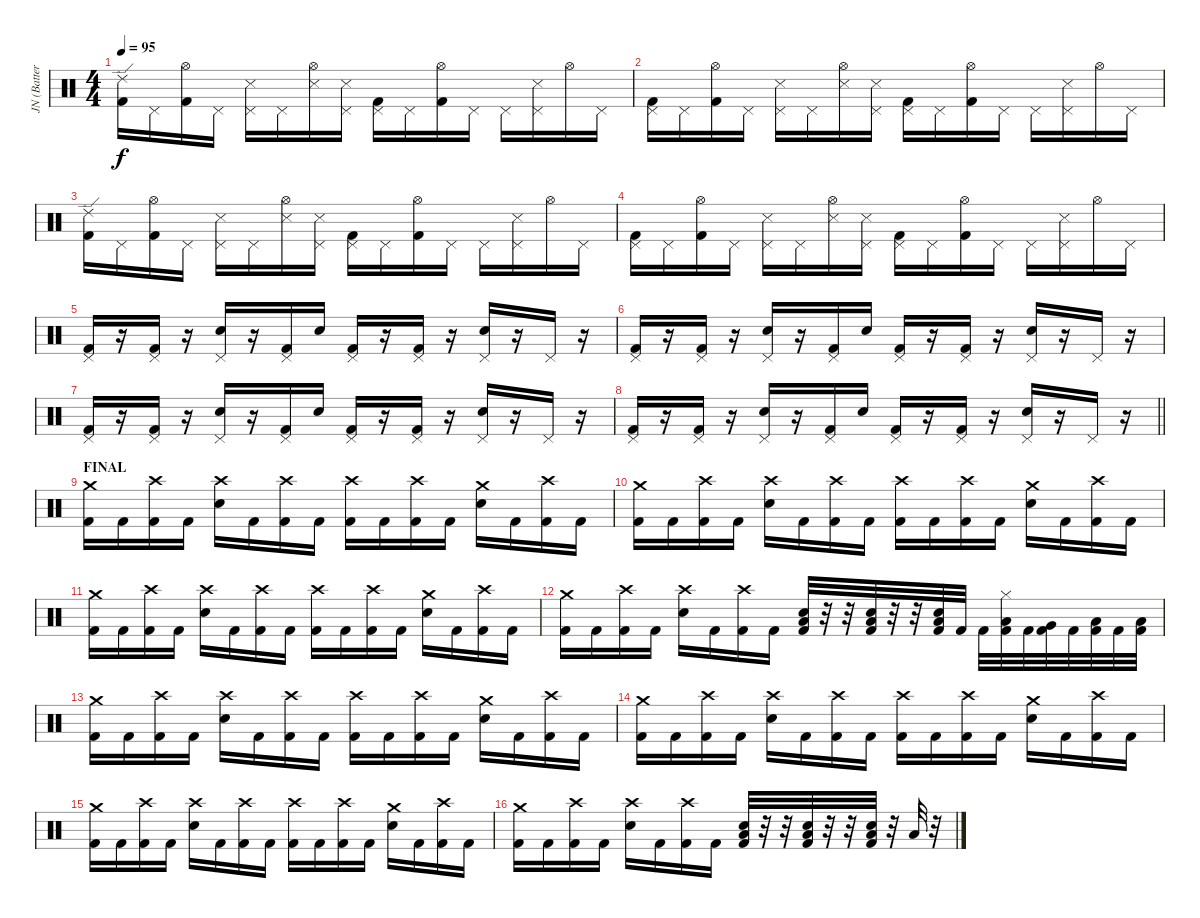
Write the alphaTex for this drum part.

\track ("JN (Batterie)" "JN (Batter") {instrument percussion}
\staff {score}
\articulation defaults
\ts (4 4)
\tempo 95
\clef neutral
\ks c
("Ride (edge) 2" "Kick (hit) 2").16{dy f} "Pedal Hi-Hat (hit)".16 ("Hi-Hat (open)" "Kick (hit) 2").16 "Pedal Hi-Hat (hit)".16 ("Pedal Hi-Hat (hit)" "Snare (side stick) 3").16 "Pedal Hi-Hat (hit)".16 ("Hi-Hat (open)" "Snare (side stick) 3").16 ("Pedal Hi-Hat (hit)" "Snare (side stick) 3").16 ("Pedal Hi-Hat (hit)" "Kick (hit) 2").16 "Pedal Hi-Hat (hit)".16 ("Hi-Hat (open)" "Kick (hit) 2").16 "Pedal Hi-Hat (hit)".16 "Pedal Hi-Hat (hit)".16 ("Pedal Hi-Hat (hit)" "Snare (side stick) 3").16 "Hi-Hat (open)".16 "Pedal Hi-Hat (hit)".16 |
("Pedal Hi-Hat (hit)" "Kick (hit) 2").16 "Pedal Hi-Hat (hit)".16 ("Hi-Hat (open)" "Kick (hit) 2").16 "Pedal Hi-Hat (hit)".16 ("Pedal Hi-Hat (hit)" "Snare (side stick) 3").16 "Pedal Hi-Hat (hit)".16 ("Hi-Hat (open)" "Snare (side stick) 3").16 ("Pedal Hi-Hat (hit)" "Snare (side stick) 3").16 ("Pedal Hi-Hat (hit)" "Kick (hit) 2").16 "Pedal Hi-Hat (hit)".16 ("Hi-Hat (open)" "Kick (hit) 2").16 "Pedal Hi-Hat (hit)".16 "Pedal Hi-Hat (hit)".16 ("Pedal Hi-Hat (hit)" "Snare (side stick) 3").16 "Hi-Hat (open)".16 "Pedal Hi-Hat (hit)".16 |
("Ride (edge) 2" "Kick (hit) 2").16 "Pedal Hi-Hat (hit)".16 ("Hi-Hat (open)" "Kick (hit) 2").16 "Pedal Hi-Hat (hit)".16 ("Pedal Hi-Hat (hit)" "Snare (side stick) 3").16 "Pedal Hi-Hat (hit)".16 ("Hi-Hat (open)" "Snare (side stick) 3").16 ("Pedal Hi-Hat (hit)" "Snare (side stick) 3").16 ("Pedal Hi-Hat (hit)" "Kick (hit) 2").16 "Pedal Hi-Hat (hit)".16 ("Hi-Hat (open)" "Kick (hit) 2").16 "Pedal Hi-Hat (hit)".16 "Pedal Hi-Hat (hit)".16 ("Pedal Hi-Hat (hit)" "Snare (side stick) 3").16 "Hi-Hat (open)".16 "Pedal Hi-Hat (hit)".16 |
("Pedal Hi-Hat (hit)" "Kick (hit) 2").16 "Pedal Hi-Hat (hit)".16 ("Hi-Hat (open)" "Kick (hit) 2").16 "Pedal Hi-Hat (hit)".16 ("Pedal Hi-Hat (hit)" "Snare (side stick) 3").16 "Pedal Hi-Hat (hit)".16 ("Hi-Hat (open)" "Snare (side stick) 3").16 ("Pedal Hi-Hat (hit)" "Snare (side stick) 3").16 ("Pedal Hi-Hat (hit)" "Kick (hit) 2").16 "Pedal Hi-Hat (hit)".16 ("Hi-Hat (open)" "Kick (hit) 2").16 "Pedal Hi-Hat (hit)".16 "Pedal Hi-Hat (hit)".16 ("Pedal Hi-Hat (hit)" "Snare (side stick) 3").16 "Hi-Hat (open)".16 "Pedal Hi-Hat (hit)".16 |
("Pedal Hi-Hat (hit)" "Kick (hit) 2").16 r.16 ("Pedal Hi-Hat (hit)" "Kick (hit) 2").16 r.16 ("Pedal Hi-Hat (hit)" "Electric Snare (hit)").16 r.16 ("Pedal Hi-Hat (hit)" "Kick (hit) 2").16 "Electric Snare (hit)".16 ("Pedal Hi-Hat (hit)" "Kick (hit) 2").16 r.16 ("Pedal Hi-Hat (hit)" "Kick (hit) 2").16 r.16 ("Pedal Hi-Hat (hit)" "Electric Snare (hit)").16 r.16 "Pedal Hi-Hat (hit)".16 r.16 |
("Pedal Hi-Hat (hit)" "Kick (hit) 2").16 r.16 ("Pedal Hi-Hat (hit)" "Kick (hit) 2").16 r.16 ("Pedal Hi-Hat (hit)" "Electric Snare (hit)").16 r.16 ("Pedal Hi-Hat (hit)" "Kick (hit) 2").16 "Electric Snare (hit)".16 ("Pedal Hi-Hat (hit)" "Kick (hit) 2").16 r.16 ("Pedal Hi-Hat (hit)" "Kick (hit) 2").16 r.16 ("Pedal Hi-Hat (hit)" "Electric Snare (hit)").16 r.16 "Pedal Hi-Hat (hit)".16 r.16 |
("Pedal Hi-Hat (hit)" "Kick (hit) 2").16 r.16 ("Pedal Hi-Hat (hit)" "Kick (hit) 2").16 r.16 ("Pedal Hi-Hat (hit)" "Electric Snare (hit)").16 r.16 ("Pedal Hi-Hat (hit)" "Kick (hit) 2").16 "Electric Snare (hit)".16 ("Pedal Hi-Hat (hit)" "Kick (hit) 2").16 r.16 ("Pedal Hi-Hat (hit)" "Kick (hit) 2").16 r.16 ("Pedal Hi-Hat (hit)" "Electric Snare (hit)").16 r.16 "Pedal Hi-Hat (hit)".16 r.16 |
\barLineRight lightlight
("Pedal Hi-Hat (hit)" "Kick (hit) 2").16 r.16 ("Pedal Hi-Hat (hit)" "Kick (hit) 2").16 r.16 ("Pedal Hi-Hat (hit)" "Electric Snare (hit)").16 r.16 ("Pedal Hi-Hat (hit)" "Kick (hit) 2").16 "Electric Snare (hit)".16 ("Pedal Hi-Hat (hit)" "Kick (hit) 2").16 r.16 ("Pedal Hi-Hat (hit)" "Kick (hit) 2").16 r.16 ("Pedal Hi-Hat (hit)" "Electric Snare (hit)").16 r.16 "Pedal Hi-Hat (hit)".16 r.16 |
\section ("" "FINAL")
("Crash medium (hit)" "Kick (hit) 2").16 "Kick (hit) 2".16 ("Crash high (hit)" "Kick (hit) 2").16 "Kick (hit) 2".16 ("Crash high (hit)" "Electric Snare (hit)").16 "Kick (hit) 2".16 ("Crash high (hit)" "Kick (hit) 2").16 "Kick (hit) 2".16 ("Crash high (hit)" "Kick (hit) 2").16 "Kick (hit) 2".16 ("Crash high (hit)" "Kick (hit) 2").16 "Kick (hit) 2".16 ("Crash medium (hit)" "Electric Snare (hit)").16 "Kick (hit) 2".16 ("Crash high (hit)" "Kick (hit) 2").16 "Kick (hit) 2".16 |
("Crash medium (hit)" "Kick (hit) 2").16 "Kick (hit) 2".16 ("Crash high (hit)" "Kick (hit) 2").16 "Kick (hit) 2".16 ("Crash high (hit)" "Electric Snare (hit)").16 "Kick (hit) 2".16 ("Crash high (hit)" "Kick (hit) 2").16 "Kick (hit) 2".16 ("Crash high (hit)" "Kick (hit) 2").16 "Kick (hit) 2".16 ("Crash high (hit)" "Kick (hit) 2").16 "Kick (hit) 2".16 ("Crash medium (hit)" "Electric Snare (hit)").16 "Kick (hit) 2".16 ("Crash high (hit)" "Kick (hit) 2").16 "Kick (hit) 2".16 |
("Crash medium (hit)" "Kick (hit) 2").16 "Kick (hit) 2".16 ("Crash high (hit)" "Kick (hit) 2").16 "Kick (hit) 2".16 ("Crash high (hit)" "Electric Snare (hit)").16 "Kick (hit) 2".16 ("Crash high (hit)" "Kick (hit) 2").16 "Kick (hit) 2".16 ("Crash high (hit)" "Kick (hit) 2").16 "Kick (hit) 2".16 ("Crash high (hit)" "Kick (hit) 2").16 "Kick (hit) 2".16 ("Crash medium (hit)" "Electric Snare (hit)").16 "Kick (hit) 2".16 ("Crash high (hit)" "Kick (hit) 2").16 "Kick (hit) 2".16 |
("Crash medium (hit)" "Kick (hit) 2").16 "Kick (hit) 2".16 ("Crash high (hit)" "Kick (hit) 2").16 "Kick (hit) 2".16 ("Crash high (hit)" "Electric Snare (hit)").16 "Kick (hit) 2".16 ("Crash high (hit)" "Kick (hit) 2").16 "Kick (hit) 2".16 ("Kick (hit) 2" "Electric Snare (hit)" "Low Tom (hit)").32 r.32 r.32 ("Kick (hit) 2" "Electric Snare (hit)" "Low Tom (hit)").32 r.32 r.32 ("Kick (hit) 2" "Electric Snare (hit)" "Low Tom (hit)").32 "Kick (hit) 2".32 "Kick (hit) 2".32 ("Kick (hit) 2" "Hi-Hat (closed)" "Low Tom (hit)").32 "Kick (hit) 2".32 ("Very Low Tom (hit)" "Kick (hit) 2").32 "Kick (hit) 2".32 ("Low Tom (hit)" "Kick (hit) 2").32 "Kick (hit) 2".32 ("Low Floor Tom (hit)" "Kick (hit) 2").32 |
("Crash medium (hit)" "Kick (hit) 2").16 "Kick (hit) 2".16 ("Crash high (hit)" "Kick (hit) 2").16 "Kick (hit) 2".16 ("Crash high (hit)" "Electric Snare (hit)").16 "Kick (hit) 2".16 ("Crash high (hit)" "Kick (hit) 2").16 "Kick (hit) 2".16 ("Crash high (hit)" "Kick (hit) 2").16 "Kick (hit) 2".16 ("Crash high (hit)" "Kick (hit) 2").16 "Kick (hit) 2".16 ("Crash medium (hit)" "Electric Snare (hit)").16 "Kick (hit) 2".16 ("Crash high (hit)" "Kick (hit) 2").16 "Kick (hit) 2".16 |
("Crash medium (hit)" "Kick (hit) 2").16 "Kick (hit) 2".16 ("Crash high (hit)" "Kick (hit) 2").16 "Kick (hit) 2".16 ("Crash high (hit)" "Electric Snare (hit)").16 "Kick (hit) 2".16 ("Crash high (hit)" "Kick (hit) 2").16 "Kick (hit) 2".16 ("Crash high (hit)" "Kick (hit) 2").16 "Kick (hit) 2".16 ("Crash high (hit)" "Kick (hit) 2").16 "Kick (hit) 2".16 ("Crash medium (hit)" "Electric Snare (hit)").16 "Kick (hit) 2".16 ("Crash high (hit)" "Kick (hit) 2").16 "Kick (hit) 2".16 |
("Crash medium (hit)" "Kick (hit) 2").16 "Kick (hit) 2".16 ("Crash high (hit)" "Kick (hit) 2").16 "Kick (hit) 2".16 ("Crash high (hit)" "Electric Snare (hit)").16 "Kick (hit) 2".16 ("Crash high (hit)" "Kick (hit) 2").16 "Kick (hit) 2".16 ("Crash high (hit)" "Kick (hit) 2").16 "Kick (hit) 2".16 ("Crash high (hit)" "Kick (hit) 2").16 "Kick (hit) 2".16 ("Crash medium (hit)" "Electric Snare (hit)").16 "Kick (hit) 2".16 ("Crash high (hit)" "Kick (hit) 2").16 "Kick (hit) 2".16 |
("Crash medium (hit)" "Kick (hit) 2").16 "Kick (hit) 2".16 ("Crash high (hit)" "Kick (hit) 2").16 "Kick (hit) 2".16 ("Crash high (hit)" "Electric Snare (hit)").16 "Kick (hit) 2".16 ("Crash high (hit)" "Kick (hit) 2").16 "Kick (hit) 2".16 ("Kick (hit) 2" "Electric Snare (hit)" "Low Tom (hit)").32 r.32 r.32 ("Kick (hit) 2" "Electric Snare (hit)" "Low Tom (hit)").32 r.32 r.32 ("Kick (hit) 2" "Electric Snare (hit)" "Low Tom (hit)").32 r.32 "Low Tom (hit)".32 r.32
